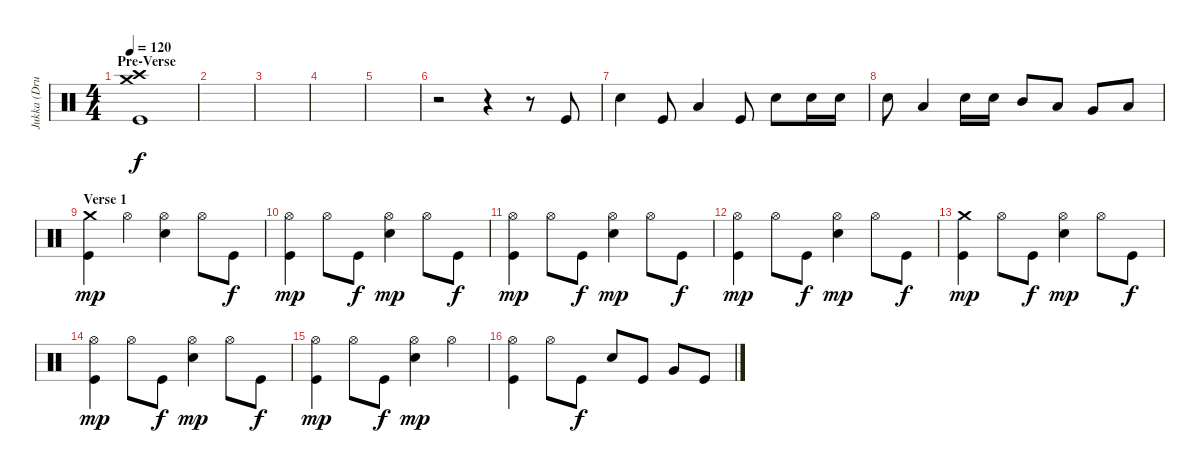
\track ("Jukka (Drums)" "Jukka (Dru") {instrument percussion}
\staff {score}
\articulation defaults
\ts (4 4)
\section ("" "Pre-Verse")
\tempo 120
\clef neutral
\ks c
("Crash high (hit)" "Crash medium (hit)" "Kick (hit)").1{dy f} |
|
|
|
|
r.2 r.4 r.8 "Kick (hit)".8 |
"Electric Snare (hit)".4 "Kick (hit)".8 "Low Tom (hit)".4 "Kick (hit)".8 "Electric Snare (hit)".8 "Electric Snare (hit)".16 "Electric Snare (hit)".16 |
"Electric Snare (hit)".8 "Low Tom (hit)".4 "Electric Snare (hit)".16 "Electric Snare (hit)".16 "Mid Tom (hit)".8 "Low Tom (hit)".8 "Very Low Tom (hit)".8 "Low Floor Tom (hit)".8 |
\section ("" "Verse 1")
("Crash medium (hit)" "Kick (hit)").4{dy mp} "Hi-Hat (open)".4 ("Hi-Hat (open)" "Electric Snare (hit)").4 "Hi-Hat (open)".8 "Kick (hit)".8{dy f} |
("Hi-Hat (open)" "Kick (hit)").4{dy mp} "Hi-Hat (open)".8 "Kick (hit)".8{dy f} ("Hi-Hat (open)" "Electric Snare (hit)").4{dy mp} "Hi-Hat (open)".8 "Kick (hit)".8{dy f} |
("Hi-Hat (open)" "Kick (hit)").4{dy mp} "Hi-Hat (open)".8 "Kick (hit)".8{dy f} ("Hi-Hat (open)" "Electric Snare (hit)").4{dy mp} "Hi-Hat (open)".8 "Kick (hit)".8{dy f} |
("Hi-Hat (open)" "Kick (hit)").4{dy mp} "Hi-Hat (open)".8 "Kick (hit)".8{dy f} ("Hi-Hat (open)" "Electric Snare (hit)").4{dy mp} "Hi-Hat (open)".8 "Kick (hit)".8{dy f} |
("Crash medium (hit)" "Kick (hit)").4{dy mp} "Hi-Hat (open)".8 "Kick (hit)".8{dy f} ("Hi-Hat (open)" "Electric Snare (hit)").4{dy mp} "Hi-Hat (open)".8 "Kick (hit)".8{dy f} |
("Hi-Hat (open)" "Kick (hit)").4{dy mp} "Hi-Hat (open)".8 "Kick (hit)".8{dy f} ("Hi-Hat (open)" "Electric Snare (hit)").4{dy mp} "Hi-Hat (open)".8 "Kick (hit)".8{dy f} |
("Hi-Hat (open)" "Kick (hit)").4{dy mp} "Hi-Hat (open)".8 "Kick (hit)".8{dy f} ("Hi-Hat (open)" "Electric Snare (hit)").4{dy mp} "Hi-Hat (open)".4 |
("Hi-Hat (open)" "Kick (hit)").4 "Hi-Hat (open)".8 "Kick (hit)".8{dy f} "Electric Snare (hit)".8 "Kick (hit)".8 "Very Low Tom (hit)".8 "Kick (hit)".8
